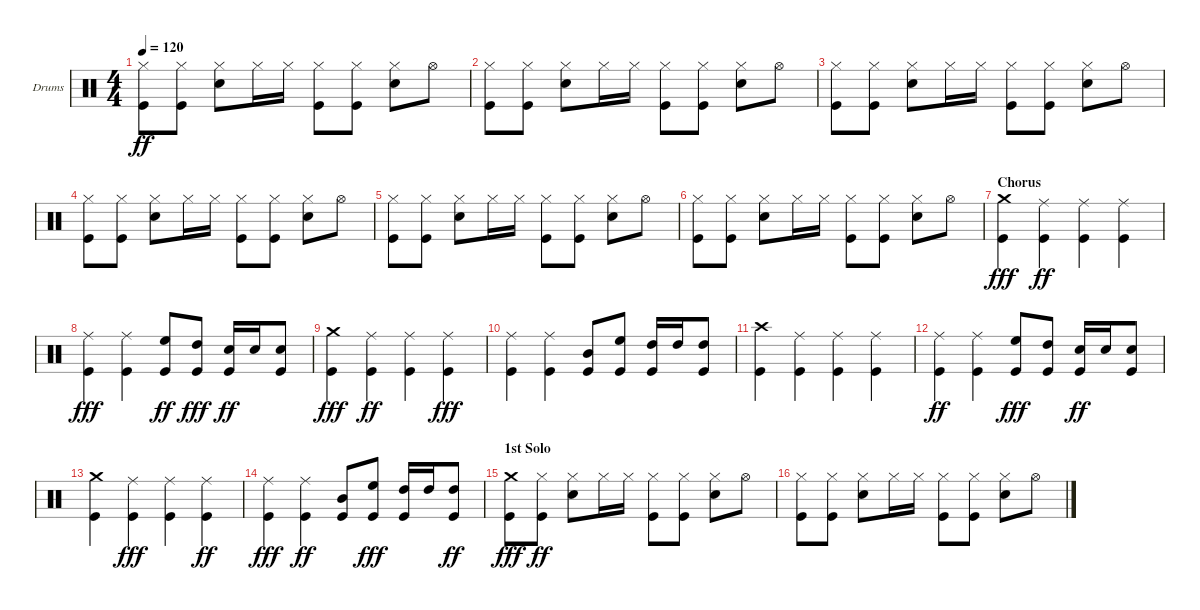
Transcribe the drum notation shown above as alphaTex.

\defaultSystemsLayout 4
\bracketExtendMode groupsimilarinstruments
\firstSystemTrackNameOrientation horizontal
\otherSystemsTrackNameOrientation horizontal
\track ("Drumkit" "Drums") {instrument percussion}
\staff {score}
\articulation defaults
\ts (4 4)
\tempo 120
\clef neutral
\ks c
("Hi-Hat (closed)" "Kick (hit)").8{dy ff} ("Hi-Hat (closed)" "Kick (hit)").8 ("Hi-Hat (closed)" "Snare (hit) 2").8 "Hi-Hat (closed)".16 "Hi-Hat (closed)".16 ("Hi-Hat (closed)" "Kick (hit)").8 ("Hi-Hat (closed)" "Kick (hit)").8 ("Snare (hit) 2" "Hi-Hat (closed)").8 "Hi-Hat (open)".8 |
("Hi-Hat (closed)" "Kick (hit)").8 ("Kick (hit)" "Hi-Hat (closed)").8 ("Snare (hit) 2" "Hi-Hat (closed)").8 "Hi-Hat (closed)".16 "Hi-Hat (closed)".16 ("Hi-Hat (closed)" "Kick (hit)").8 ("Hi-Hat (closed)" "Kick (hit)").8 ("Hi-Hat (closed)" "Snare (hit) 2").8 "Hi-Hat (open)".8 |
("Kick (hit)" "Hi-Hat (closed)").8 ("Hi-Hat (closed)" "Kick (hit)").8 ("Hi-Hat (closed)" "Snare (hit) 2").8 "Hi-Hat (closed)".16 "Hi-Hat (closed)".16 ("Hi-Hat (closed)" "Kick (hit)").8 ("Hi-Hat (closed)" "Kick (hit)").8 ("Hi-Hat (closed)" "Snare (hit) 2").8 "Hi-Hat (open)".8 |
("Hi-Hat (closed)" "Kick (hit)").8 ("Kick (hit)" "Hi-Hat (closed)").8 ("Snare (hit) 2" "Hi-Hat (closed)").8 "Hi-Hat (closed)".16 "Hi-Hat (closed)".16 ("Kick (hit)" "Hi-Hat (closed)").8 ("Hi-Hat (closed)" "Kick (hit)").8 ("Hi-Hat (closed)" "Snare (hit) 2").8 "Hi-Hat (open)".8 |
("Kick (hit)" "Hi-Hat (closed)").8 ("Hi-Hat (closed)" "Kick (hit)").8 ("Hi-Hat (closed)" "Snare (hit) 2").8 "Hi-Hat (closed)".16 "Hi-Hat (closed)".16 ("Hi-Hat (closed)" "Kick (hit)").8 ("Hi-Hat (closed)" "Kick (hit)").8 ("Hi-Hat (closed)" "Snare (hit) 2").8 "Hi-Hat (open)".8 |
("Hi-Hat (closed)" "Kick (hit)").8 ("Kick (hit)" "Hi-Hat (closed)").8 ("Snare (hit) 2" "Hi-Hat (closed)").8 "Hi-Hat (closed)".16 "Hi-Hat (closed)".16 ("Kick (hit)" "Hi-Hat (closed)").8 ("Hi-Hat (closed)" "Kick (hit)").8 ("Hi-Hat (closed)" "Snare (hit) 2").8 "Hi-Hat (open)".8 |
\section ("" "Chorus")
("Crash medium (hit)" "Kick (hit)").4{dy fff} ("Kick (hit)" "Ride (middle)").4{dy ff} ("Kick (hit)" "Ride (middle)").4 ("Kick (hit)" "Ride (middle)").4 |
("Ride (middle)" "Kick (hit)").4{dy fff} ("Ride (middle)" "Kick (hit)").4 ("Kick (hit)" "High Floor Tom (hit)").8{dy ff} ("High Tom (hit)" "Kick (hit)").8{dy fff} ("Snare (hit) 2" "Kick (hit)").16{dy ff} "Snare (hit) 2".16 ("Snare (hit) 2" "Kick (hit)").8 |
("Crash medium (hit)" "Kick (hit)").4{dy fff} ("Kick (hit)" "Ride (middle)").4{dy ff} ("Kick (hit)" "Ride (middle)").4 ("Ride (middle)" "Kick (hit)").4{dy fff} |
("Ride (middle)" "Kick (hit)").4 ("Ride (middle)" "Kick (hit)").4 ("Mid Tom (hit)" "Kick (hit)").8 ("High Floor Tom (hit)" "Kick (hit)").8 ("High Tom (hit)" "Kick (hit)").16 "High Tom (hit)".16 ("High Tom (hit)" "Kick (hit)").8 |
("Crash high (hit)" "Kick (hit)").4 ("Ride (middle)" "Kick (hit)").4 ("Ride (middle)" "Kick (hit)").4 ("Ride (middle)" "Kick (hit)").4 |
("Kick (hit)" "Ride (middle)").4{dy ff} ("Kick (hit)" "Ride (middle)").4 ("High Floor Tom (hit)" "Kick (hit)").8{dy fff} ("High Tom (hit)" "Kick (hit)").8 ("Snare (hit) 2" "Kick (hit)").16{dy ff} "Snare (hit) 2".16 ("Snare (hit) 2" "Kick (hit)").8 |
("Kick (hit)" "Crash medium (hit)").4 ("Ride (middle)" "Kick (hit)").4{dy fff} ("Ride (middle)" "Kick (hit)").4 ("Kick (hit)" "Ride (middle)").4{dy ff} |
("Ride (middle)" "Kick (hit)").4{dy fff} ("Kick (hit)" "Ride (middle)").4{dy ff} ("Kick (hit)" "Mid Tom (hit)").8 ("High Floor Tom (hit)" "Kick (hit)").8{dy fff} ("High Tom (hit)" "Kick (hit)").16 "High Tom (hit)".16 ("Kick (hit)" "High Tom (hit)").8{dy ff} |
\section ("" "1st Solo ")
("Crash medium (hit)" "Kick (hit)").8{dy fff} ("Hi-Hat (closed)" "Kick (hit)").8{dy ff} ("Hi-Hat (closed)" "Snare (hit) 2").8 "Hi-Hat (closed)".16 "Hi-Hat (closed)".16 ("Hi-Hat (closed)" "Kick (hit)").8 ("Kick (hit)" "Hi-Hat (closed)").8 ("Hi-Hat (closed)" "Snare (hit) 2").8 "Hi-Hat (open)".8 |
("Hi-Hat (closed)" "Kick (hit)").8 ("Hi-Hat (closed)" "Kick (hit)").8 ("Hi-Hat (closed)" "Snare (hit) 2").8 "Hi-Hat (closed)".16 "Hi-Hat (closed)".16 ("Hi-Hat (closed)" "Kick (hit)").8 ("Hi-Hat (closed)" "Kick (hit)").8 ("Hi-Hat (closed)" "Snare (hit) 2").8 "Hi-Hat (open)".8
